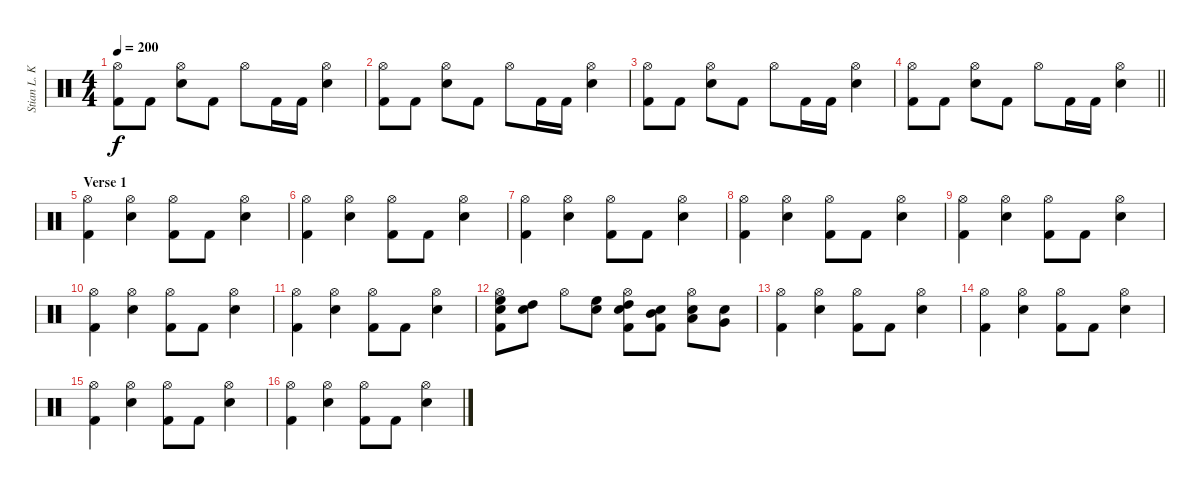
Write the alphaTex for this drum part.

\track ("Stian L. Kristoffersen - Drums" "Stian L. K") {instrument percussion}
\staff {score}
\articulation defaults
\ts (4 4)
\tempo 200
\clef neutral
\ks c
("Hi-Hat (open)" "Kick (hit) 2").8{dy f} "Kick (hit) 2".8 ("Hi-Hat (open)" "Electric Snare (hit)").8 "Kick (hit) 2".8 "Hi-Hat (open)".8 "Kick (hit) 2".16 "Kick (hit) 2".16 ("Hi-Hat (open)" "Electric Snare (hit)").4 |
("Hi-Hat (open)" "Kick (hit) 2").8 "Kick (hit) 2".8 ("Hi-Hat (open)" "Electric Snare (hit)").8 "Kick (hit) 2".8 "Hi-Hat (open)".8 "Kick (hit) 2".16 "Kick (hit) 2".16 ("Hi-Hat (open)" "Electric Snare (hit)").4 |
("Hi-Hat (open)" "Kick (hit) 2").8 "Kick (hit) 2".8 ("Hi-Hat (open)" "Electric Snare (hit)").8 "Kick (hit) 2".8 "Hi-Hat (open)".8 "Kick (hit) 2".16 "Kick (hit) 2".16 ("Hi-Hat (open)" "Electric Snare (hit)").4 |
\barLineRight lightlight
("Hi-Hat (open)" "Kick (hit) 2").8 "Kick (hit) 2".8 ("Hi-Hat (open)" "Electric Snare (hit)").8 "Kick (hit) 2".8 "Hi-Hat (open)".8 "Kick (hit) 2".16 "Kick (hit) 2".16 ("Hi-Hat (open)" "Electric Snare (hit)").4 |
\section ("" "Verse 1")
("Hi-Hat (open)" "Kick (hit) 2").4 ("Hi-Hat (open)" "Electric Snare (hit)").4 ("Hi-Hat (open)" "Kick (hit) 2").8 "Kick (hit) 2".8 ("Hi-Hat (open)" "Electric Snare (hit)").4 |
("Hi-Hat (open)" "Kick (hit) 2").4 ("Hi-Hat (open)" "Electric Snare (hit)").4 ("Hi-Hat (open)" "Kick (hit) 2").8 "Kick (hit) 2".8 ("Hi-Hat (open)" "Electric Snare (hit)").4 |
("Hi-Hat (open)" "Kick (hit) 2").4 ("Hi-Hat (open)" "Electric Snare (hit)").4 ("Hi-Hat (open)" "Kick (hit) 2").8 "Kick (hit) 2".8 ("Hi-Hat (open)" "Electric Snare (hit)").4 |
("Hi-Hat (open)" "Kick (hit) 2").4 ("Hi-Hat (open)" "Electric Snare (hit)").4 ("Hi-Hat (open)" "Kick (hit) 2").8 "Kick (hit) 2".8 ("Hi-Hat (open)" "Electric Snare (hit)").4 |
("Hi-Hat (open)" "Kick (hit) 2").4 ("Hi-Hat (open)" "Electric Snare (hit)").4 ("Hi-Hat (open)" "Kick (hit) 2").8 "Kick (hit) 2".8 ("Hi-Hat (open)" "Electric Snare (hit)").4 |
("Hi-Hat (open)" "Kick (hit) 2").4 ("Hi-Hat (open)" "Electric Snare (hit)").4 ("Hi-Hat (open)" "Kick (hit) 2").8 "Kick (hit) 2".8 ("Hi-Hat (open)" "Electric Snare (hit)").4 |
("Hi-Hat (open)" "Kick (hit) 2").4 ("Hi-Hat (open)" "Electric Snare (hit)").4 ("Hi-Hat (open)" "Kick (hit) 2").8 "Kick (hit) 2".8 ("Hi-Hat (open)" "Electric Snare (hit)").4 |
("Hi-Hat (open)" "Electric Snare (hit)" "High Floor Tom (hit)" "Kick (hit) 2").8 ("Electric Snare (hit)" "High Tom (hit)").8 "Hi-Hat (open)".8 ("Electric Snare (hit)" "High Floor Tom (hit)").8 ("Hi-Hat (open)" "Electric Snare (hit)" "High Tom (hit)" "Kick (hit) 2").8 ("Electric Snare (hit)" "Mid Tom (hit)" "Kick (hit) 2").8 ("Hi-Hat (open)" "Electric Snare (hit)" "Low Tom (hit)").8 ("Electric Snare (hit)" "Very Low Tom (hit)").8 |
("Hi-Hat (open)" "Kick (hit) 2").4 ("Hi-Hat (open)" "Electric Snare (hit)").4 ("Hi-Hat (open)" "Kick (hit) 2").8 "Kick (hit) 2".8 ("Hi-Hat (open)" "Electric Snare (hit)").4 |
("Hi-Hat (open)" "Kick (hit) 2").4 ("Hi-Hat (open)" "Electric Snare (hit)").4 ("Hi-Hat (open)" "Kick (hit) 2").8 "Kick (hit) 2".8 ("Hi-Hat (open)" "Electric Snare (hit)").4 |
("Hi-Hat (open)" "Kick (hit) 2").4 ("Hi-Hat (open)" "Electric Snare (hit)").4 ("Hi-Hat (open)" "Kick (hit) 2").8 "Kick (hit) 2".8 ("Hi-Hat (open)" "Electric Snare (hit)").4 |
("Hi-Hat (open)" "Kick (hit) 2").4 ("Hi-Hat (open)" "Electric Snare (hit)").4 ("Hi-Hat (open)" "Kick (hit) 2").8 "Kick (hit) 2".8 ("Hi-Hat (open)" "Electric Snare (hit)").4
